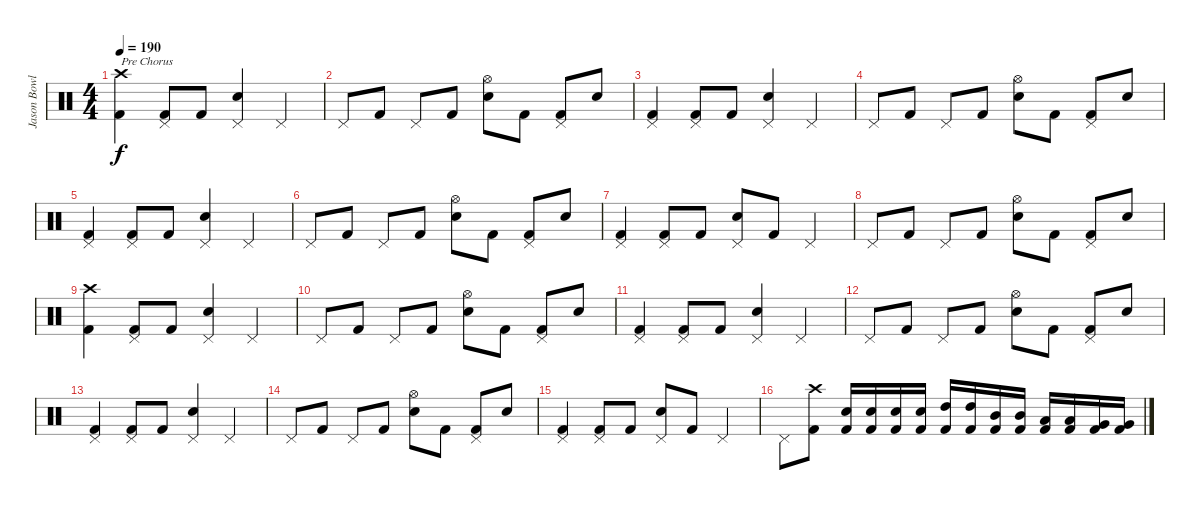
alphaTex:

\track ("Jason Bowld" "Jason Bowl") {instrument percussion}
\staff {score}
\articulation defaults
\ts (4 4)
\tempo 190
\clef neutral
\ks c
("Crash high (hit)" "Kick (hit) 2").4{txt "Pre Chorus" dy f} ("Pedal Hi-Hat (hit)" "Kick (hit) 2").8 "Kick (hit) 2".8 ("Pedal Hi-Hat (hit)" "Snare (hit) 2").4 "Pedal Hi-Hat (hit)".4 |
"Pedal Hi-Hat (hit)".8 "Kick (hit) 2".8 "Pedal Hi-Hat (hit)".8 "Kick (hit) 2".8 ("Hi-Hat (open)" "Snare (hit) 2").8 "Kick (hit) 2".8 ("Pedal Hi-Hat (hit)" "Kick (hit) 2").8 "Snare (hit) 2".8 |
("Pedal Hi-Hat (hit)" "Kick (hit) 2").4 ("Pedal Hi-Hat (hit)" "Kick (hit) 2").8 "Kick (hit) 2".8 ("Pedal Hi-Hat (hit)" "Snare (hit) 2").4 "Pedal Hi-Hat (hit)".4 |
"Pedal Hi-Hat (hit)".8 "Kick (hit) 2".8 "Pedal Hi-Hat (hit)".8 "Kick (hit) 2".8 ("Hi-Hat (open)" "Snare (hit) 2").8 "Kick (hit) 2".8 ("Pedal Hi-Hat (hit)" "Kick (hit) 2").8 "Snare (hit) 2".8 |
("Pedal Hi-Hat (hit)" "Kick (hit) 2").4 ("Pedal Hi-Hat (hit)" "Kick (hit) 2").8 "Kick (hit) 2".8 ("Pedal Hi-Hat (hit)" "Snare (hit) 2").4 "Pedal Hi-Hat (hit)".4 |
"Pedal Hi-Hat (hit)".8 "Kick (hit) 2".8 "Pedal Hi-Hat (hit)".8 "Kick (hit) 2".8 ("Hi-Hat (open)" "Snare (hit) 2").8 "Kick (hit) 2".8 ("Pedal Hi-Hat (hit)" "Kick (hit) 2").8 "Snare (hit) 2".8 |
("Pedal Hi-Hat (hit)" "Kick (hit) 2").4 ("Pedal Hi-Hat (hit)" "Kick (hit) 2").8 "Kick (hit) 2".8 ("Pedal Hi-Hat (hit)" "Snare (hit) 2").8 "Kick (hit) 2".8 "Pedal Hi-Hat (hit)".4 |
"Pedal Hi-Hat (hit)".8 "Kick (hit) 2".8 "Pedal Hi-Hat (hit)".8 "Kick (hit) 2".8 ("Hi-Hat (open)" "Snare (hit) 2").8 "Kick (hit) 2".8 ("Pedal Hi-Hat (hit)" "Kick (hit) 2").8 "Snare (hit) 2".8 |
("Crash high (hit)" "Kick (hit) 2").4 ("Pedal Hi-Hat (hit)" "Kick (hit) 2").8 "Kick (hit) 2".8 ("Pedal Hi-Hat (hit)" "Snare (hit) 2").4 "Pedal Hi-Hat (hit)".4 |
"Pedal Hi-Hat (hit)".8 "Kick (hit) 2".8 "Pedal Hi-Hat (hit)".8 "Kick (hit) 2".8 ("Hi-Hat (open)" "Snare (hit) 2").8 "Kick (hit) 2".8 ("Pedal Hi-Hat (hit)" "Kick (hit) 2").8 "Snare (hit) 2".8 |
("Pedal Hi-Hat (hit)" "Kick (hit) 2").4 ("Pedal Hi-Hat (hit)" "Kick (hit) 2").8 "Kick (hit) 2".8 ("Pedal Hi-Hat (hit)" "Snare (hit) 2").4 "Pedal Hi-Hat (hit)".4 |
"Pedal Hi-Hat (hit)".8 "Kick (hit) 2".8 "Pedal Hi-Hat (hit)".8 "Kick (hit) 2".8 ("Hi-Hat (open)" "Snare (hit) 2").8 "Kick (hit) 2".8 ("Pedal Hi-Hat (hit)" "Kick (hit) 2").8 "Snare (hit) 2".8 |
("Pedal Hi-Hat (hit)" "Kick (hit) 2").4 ("Pedal Hi-Hat (hit)" "Kick (hit) 2").8 "Kick (hit) 2".8 ("Pedal Hi-Hat (hit)" "Snare (hit) 2").4 "Pedal Hi-Hat (hit)".4 |
"Pedal Hi-Hat (hit)".8 "Kick (hit) 2".8 "Pedal Hi-Hat (hit)".8 "Kick (hit) 2".8 ("Hi-Hat (open)" "Snare (hit) 2").8 "Kick (hit) 2".8 ("Pedal Hi-Hat (hit)" "Kick (hit) 2").8 "Snare (hit) 2".8 |
("Pedal Hi-Hat (hit)" "Kick (hit) 2").4 ("Pedal Hi-Hat (hit)" "Kick (hit) 2").8 "Kick (hit) 2".8 ("Pedal Hi-Hat (hit)" "Snare (hit) 2").8 "Kick (hit) 2".8 "Pedal Hi-Hat (hit)".4 |
"Pedal Hi-Hat (hit)".8 ("Crash high (hit)" "Kick (hit) 2").8 ("Snare (hit) 2" "Kick (hit) 2").16 ("Snare (hit) 2" "Kick (hit) 2").16 ("Snare (hit) 2" "Kick (hit) 2").16 ("Snare (hit) 2" "Kick (hit) 2").16 ("High Tom (hit)" "Kick (hit) 2").16 ("High Tom (hit)" "Kick (hit) 2").16 ("Mid Tom (hit)" "Kick (hit) 2").16 ("Mid Tom (hit)" "Kick (hit) 2").16 ("Low Tom (hit)" "Kick (hit) 2").16 ("Low Tom (hit)" "Kick (hit) 2").16 ("Very Low Tom (hit)" "Kick (hit) 2").16 ("Very Low Tom (hit)" "Kick (hit) 2").16
